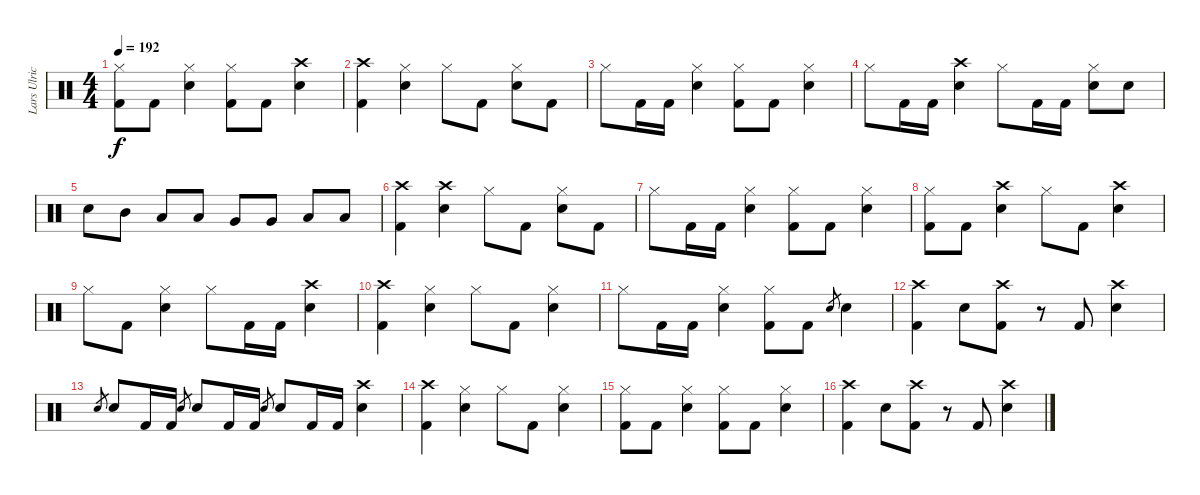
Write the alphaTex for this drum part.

\track ("Lars Ulrich - Drums" "Lars Ulric") {instrument percussion}
\staff {score}
\articulation defaults
\ts (4 4)
\tempo 192
\clef neutral
\ks c
("Hi-Hat (closed)" "Kick (hit) 2").8{dy f} "Kick (hit) 2".8 ("Hi-Hat (closed)" "Snare (hit) 2").4 ("Hi-Hat (closed)" "Kick (hit) 2").8 "Kick (hit) 2".8 ("Crash high (hit)" "Snare (hit) 2").4 |
("Crash high (hit)" "Kick (hit) 2").4 ("Hi-Hat (closed)" "Snare (hit) 2").4 "Hi-Hat (closed)".8 "Kick (hit) 2".8 ("Hi-Hat (closed)" "Snare (hit) 2").8 "Kick (hit) 2".8 |
"Hi-Hat (closed)".8 "Kick (hit) 2".16 "Kick (hit) 2".16 ("Hi-Hat (closed)" "Snare (hit) 2").4 ("Hi-Hat (closed)" "Kick (hit) 2").8 "Kick (hit) 2".8 ("Hi-Hat (closed)" "Snare (hit) 2").4 |
"Hi-Hat (closed)".8 "Kick (hit) 2".16 "Kick (hit) 2".16 ("Crash high (hit)" "Snare (hit) 2").4 "Hi-Hat (closed)".8 "Kick (hit) 2".16 "Kick (hit) 2".16 ("Hi-Hat (closed)" "Snare (hit) 2").8 "Snare (hit) 2".8 |
"Snare (hit) 2".8 "Mid Tom (hit)".8 "Low Tom (hit)".8 "Low Tom (hit)".8 "Very Low Tom (hit)".8 "Very Low Tom (hit)".8 "Low Floor Tom (hit)".8 "Low Floor Tom (hit)".8 |
("Crash high (hit)" "Kick (hit) 2").4 ("Crash high (hit)" "Snare (hit) 2").4 "Hi-Hat (closed)".8 "Kick (hit) 2".8 ("Hi-Hat (closed)" "Snare (hit) 2").8 "Kick (hit) 2".8 |
"Hi-Hat (closed)".8 "Kick (hit) 2".16 "Kick (hit) 2".16 ("Hi-Hat (closed)" "Snare (hit) 2").4 ("Hi-Hat (closed)" "Kick (hit) 2").8 "Kick (hit) 2".8 ("Hi-Hat (closed)" "Snare (hit) 2").4 |
("Hi-Hat (closed)" "Kick (hit) 2").8 "Kick (hit) 2".8 ("Crash high (hit)" "Snare (hit) 2").4 "Hi-Hat (closed)".8 "Kick (hit) 2".8 ("Crash high (hit)" "Snare (hit) 2").4 |
"Hi-Hat (closed)".8 "Kick (hit) 2".8 ("Hi-Hat (closed)" "Snare (hit) 2").4 "Hi-Hat (closed)".8 "Kick (hit) 2".16 "Kick (hit) 2".16 ("Crash high (hit)" "Snare (hit) 2").4 |
("Crash high (hit)" "Kick (hit) 2").4 ("Hi-Hat (closed)" "Snare (hit) 2").4 "Hi-Hat (closed)".8 "Kick (hit) 2".8 ("Hi-Hat (closed)" "Snare (hit) 2").4 |
"Hi-Hat (closed)".8 "Kick (hit) 2".16 "Kick (hit) 2".16 ("Hi-Hat (closed)" "Snare (hit) 2").4 ("Hi-Hat (closed)" "Kick (hit) 2").8 "Kick (hit) 2".8 "Snare (hit) 2".8{gr} "Snare (hit) 2".4 |
("Crash high (hit)" "Kick (hit) 2").4 "Snare (hit) 2".8 ("Crash high (hit)" "Kick (hit) 2").8 r.8 "Kick (hit) 2".8 ("Crash high (hit)" "Snare (hit) 2").4 |
"Snare (hit) 2".8{gr} "Snare (hit) 2".8 "Kick (hit) 2".16 "Kick (hit) 2".16 "Snare (hit) 2".8{gr} "Snare (hit) 2".8 "Kick (hit) 2".16 "Kick (hit) 2".16 "Snare (hit) 2".8{gr} "Snare (hit) 2".8 "Kick (hit) 2".16 "Kick (hit) 2".16 ("Crash high (hit)" "Snare (hit) 2").4 |
("Crash high (hit)" "Kick (hit) 2").4 ("Hi-Hat (closed)" "Snare (hit) 2").4 "Hi-Hat (closed)".8 "Kick (hit) 2".8 ("Hi-Hat (closed)" "Snare (hit) 2").4 |
("Hi-Hat (closed)" "Kick (hit) 2").8 "Kick (hit) 2".8 ("Hi-Hat (closed)" "Snare (hit) 2").4 ("Hi-Hat (closed)" "Kick (hit) 2").8 "Kick (hit) 2".8 ("Hi-Hat (closed)" "Snare (hit) 2").4 |
("Crash high (hit)" "Kick (hit) 2").4 "Snare (hit) 2".8 ("Crash high (hit)" "Kick (hit) 2").8 r.8 "Kick (hit) 2".8 ("Crash high (hit)" "Snare (hit) 2").4
